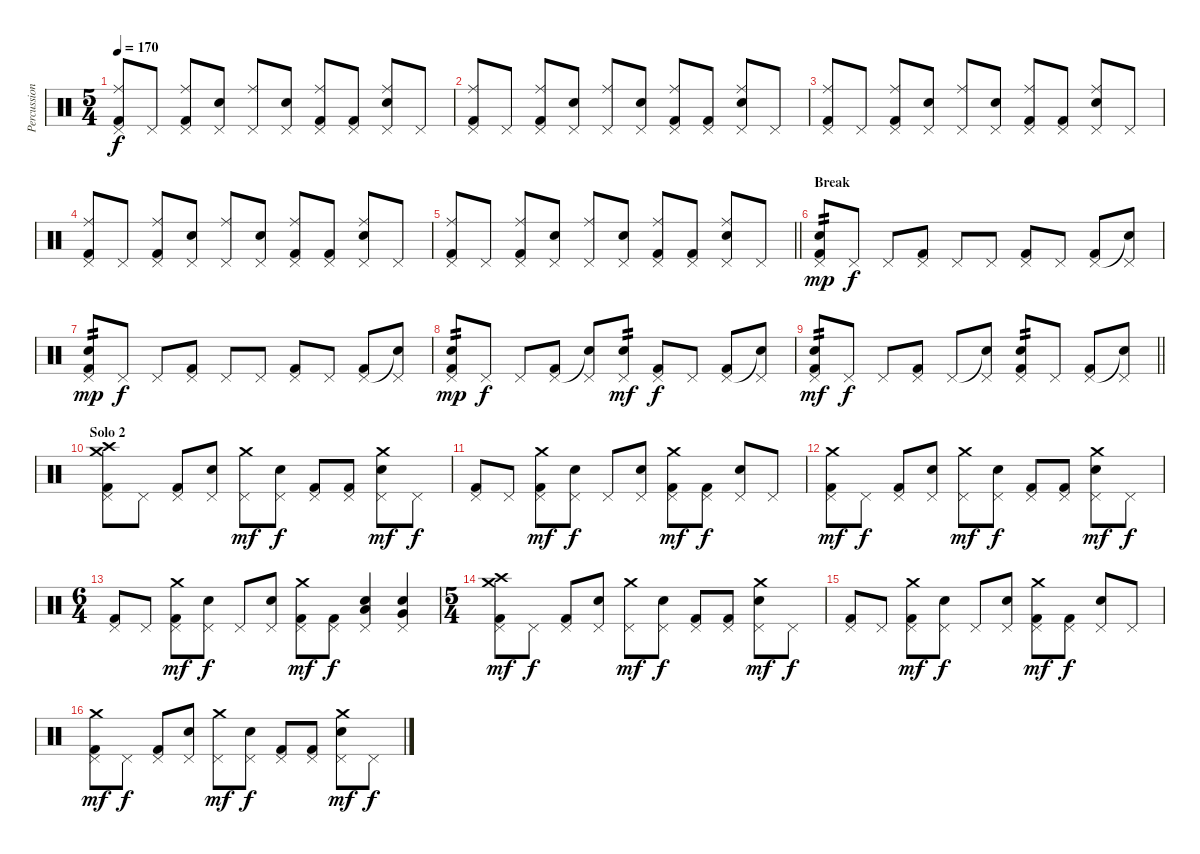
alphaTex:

\track ("Percussion" "Percussion") {instrument percussion}
\staff {score}
\articulation defaults
\ts (5 4)
\tempo 170
\clef neutral
\ks c
("Ride (middle)" "Pedal Hi-Hat (hit)" "Kick (hit) 2").8{dy f} "Pedal Hi-Hat (hit)".8 ("Ride (middle)" "Pedal Hi-Hat (hit)" "Kick (hit) 2").8 ("Electric Snare (hit)" "Pedal Hi-Hat (hit)").8 ("Ride (middle)" "Pedal Hi-Hat (hit)").8 ("Electric Snare (hit)" "Pedal Hi-Hat (hit)").8 ("Ride (middle)" "Pedal Hi-Hat (hit)" "Kick (hit) 2").8 ("Pedal Hi-Hat (hit)" "Kick (hit) 2").8 ("Ride (middle)" "Electric Snare (hit)" "Pedal Hi-Hat (hit)").8 "Pedal Hi-Hat (hit)".8 |
("Ride (middle)" "Pedal Hi-Hat (hit)" "Kick (hit) 2").8 "Pedal Hi-Hat (hit)".8 ("Ride (middle)" "Pedal Hi-Hat (hit)" "Kick (hit) 2").8 ("Electric Snare (hit)" "Pedal Hi-Hat (hit)").8 ("Ride (middle)" "Pedal Hi-Hat (hit)").8 ("Electric Snare (hit)" "Pedal Hi-Hat (hit)").8 ("Ride (middle)" "Pedal Hi-Hat (hit)" "Kick (hit) 2").8 ("Pedal Hi-Hat (hit)" "Kick (hit) 2").8 ("Ride (middle)" "Electric Snare (hit)" "Pedal Hi-Hat (hit)").8 "Pedal Hi-Hat (hit)".8 |
("Ride (middle)" "Pedal Hi-Hat (hit)" "Kick (hit) 2").8 "Pedal Hi-Hat (hit)".8 ("Ride (middle)" "Pedal Hi-Hat (hit)" "Kick (hit) 2").8 ("Electric Snare (hit)" "Pedal Hi-Hat (hit)").8 ("Ride (middle)" "Pedal Hi-Hat (hit)").8 ("Electric Snare (hit)" "Pedal Hi-Hat (hit)").8 ("Ride (middle)" "Pedal Hi-Hat (hit)" "Kick (hit) 2").8 ("Pedal Hi-Hat (hit)" "Kick (hit) 2").8 ("Ride (middle)" "Electric Snare (hit)" "Pedal Hi-Hat (hit)").8 "Pedal Hi-Hat (hit)".8 |
("Ride (middle)" "Pedal Hi-Hat (hit)" "Kick (hit) 2").8 "Pedal Hi-Hat (hit)".8 ("Ride (middle)" "Pedal Hi-Hat (hit)" "Kick (hit) 2").8 ("Electric Snare (hit)" "Pedal Hi-Hat (hit)").8 ("Ride (middle)" "Pedal Hi-Hat (hit)").8 ("Electric Snare (hit)" "Pedal Hi-Hat (hit)").8 ("Ride (middle)" "Pedal Hi-Hat (hit)" "Kick (hit) 2").8 ("Pedal Hi-Hat (hit)" "Kick (hit) 2").8 ("Ride (middle)" "Electric Snare (hit)" "Pedal Hi-Hat (hit)").8 "Pedal Hi-Hat (hit)".8 |
\barLineRight lightlight
("Ride (middle)" "Pedal Hi-Hat (hit)" "Kick (hit) 2").8 "Pedal Hi-Hat (hit)".8 ("Ride (middle)" "Pedal Hi-Hat (hit)" "Kick (hit) 2").8 ("Electric Snare (hit)" "Pedal Hi-Hat (hit)").8 ("Ride (middle)" "Pedal Hi-Hat (hit)").8 ("Electric Snare (hit)" "Pedal Hi-Hat (hit)").8 ("Ride (middle)" "Pedal Hi-Hat (hit)" "Kick (hit) 2").8 ("Pedal Hi-Hat (hit)" "Kick (hit) 2").8 ("Ride (middle)" "Electric Snare (hit)" "Pedal Hi-Hat (hit)").8 "Pedal Hi-Hat (hit)".8 |
\section ("" "Break")
("Electric Snare (hit)" "Pedal Hi-Hat (hit)" "Kick (hit) 2").8{tp 2 dy mp} "Pedal Hi-Hat (hit)".8{dy f} "Pedal Hi-Hat (hit)".8 ("Pedal Hi-Hat (hit)" "Kick (hit) 2").8 "Pedal Hi-Hat (hit)".8 "Pedal Hi-Hat (hit)".8 ("Pedal Hi-Hat (hit)" "Kick (hit) 2").8 "Pedal Hi-Hat (hit)".8 ("Pedal Hi-Hat (hit)" "Kick (hit) 2").8 ("Snare (hit)"{t} "Pedal Hi-Hat (hit)").8 |
("Electric Snare (hit)" "Pedal Hi-Hat (hit)" "Kick (hit) 2").8{tp 2 dy mp} "Pedal Hi-Hat (hit)".8{dy f} "Pedal Hi-Hat (hit)".8 ("Pedal Hi-Hat (hit)" "Kick (hit) 2").8 "Pedal Hi-Hat (hit)".8 "Pedal Hi-Hat (hit)".8 ("Pedal Hi-Hat (hit)" "Kick (hit) 2").8 "Pedal Hi-Hat (hit)".8 ("Pedal Hi-Hat (hit)" "Kick (hit) 2").8 ("Snare (hit)"{t} "Pedal Hi-Hat (hit)").8 |
("Electric Snare (hit)" "Pedal Hi-Hat (hit)" "Kick (hit) 2").8{tp 2 dy mp} "Pedal Hi-Hat (hit)".8{dy f} "Pedal Hi-Hat (hit)".8 ("Pedal Hi-Hat (hit)" "Kick (hit) 2").8 ("Snare (hit)"{t} "Pedal Hi-Hat (hit)").8 ("Electric Snare (hit)" "Pedal Hi-Hat (hit)").8{tp 2 dy mf} ("Pedal Hi-Hat (hit)" "Kick (hit) 2").8{dy f} "Pedal Hi-Hat (hit)".8 ("Pedal Hi-Hat (hit)" "Kick (hit) 2").8 ("Snare (hit)"{t} "Pedal Hi-Hat (hit)").8 |
\barLineRight lightlight
("Electric Snare (hit)" "Pedal Hi-Hat (hit)" "Kick (hit) 2").8{tp 2 dy mf} "Pedal Hi-Hat (hit)".8{dy f} "Pedal Hi-Hat (hit)".8 ("Pedal Hi-Hat (hit)" "Kick (hit) 2").8 "Pedal Hi-Hat (hit)".8 ("Snare (hit)"{t} "Pedal Hi-Hat (hit)").8 ("Electric Snare (hit)" "Pedal Hi-Hat (hit)" "Kick (hit) 2").8{tp 2} "Pedal Hi-Hat (hit)".8 ("Pedal Hi-Hat (hit)" "Kick (hit) 2").8 ("Snare (hit)"{t} "Pedal Hi-Hat (hit)").8 |
\section ("" "Solo 2")
("Crash medium (hit)" "Crash high (hit)" "Pedal Hi-Hat (hit)" "Kick (hit) 2").8 "Pedal Hi-Hat (hit)".8 ("Pedal Hi-Hat (hit)" "Kick (hit) 2").8 ("Pedal Hi-Hat (hit)" "Electric Snare (hit)").8 ("Crash medium (hit)" "Pedal Hi-Hat (hit)").8{dy mf} ("Pedal Hi-Hat (hit)" "Electric Snare (hit)").8{dy f} ("Pedal Hi-Hat (hit)" "Kick (hit) 2").8 ("Pedal Hi-Hat (hit)" "Kick (hit) 2").8 ("Crash medium (hit)" "Pedal Hi-Hat (hit)" "Electric Snare (hit)").8{dy mf} "Pedal Hi-Hat (hit)".8{dy f} |
("Pedal Hi-Hat (hit)" "Kick (hit) 2").8 "Pedal Hi-Hat (hit)".8 ("Crash medium (hit)" "Pedal Hi-Hat (hit)" "Kick (hit) 2").8{dy mf} ("Pedal Hi-Hat (hit)" "Electric Snare (hit)").8{dy f} "Pedal Hi-Hat (hit)".8 ("Pedal Hi-Hat (hit)" "Electric Snare (hit)").8 ("Crash medium (hit)" "Pedal Hi-Hat (hit)" "Kick (hit) 2").8{dy mf} ("Pedal Hi-Hat (hit)" "Kick (hit) 2").8{dy f} ("Pedal Hi-Hat (hit)" "Electric Snare (hit)").8 "Pedal Hi-Hat (hit)".8 |
("Crash medium (hit)" "Pedal Hi-Hat (hit)" "Kick (hit) 2").8{dy mf} "Pedal Hi-Hat (hit)".8{dy f} ("Pedal Hi-Hat (hit)" "Kick (hit) 2").8 ("Pedal Hi-Hat (hit)" "Electric Snare (hit)").8 ("Crash medium (hit)" "Pedal Hi-Hat (hit)").8{dy mf} ("Pedal Hi-Hat (hit)" "Electric Snare (hit)").8{dy f} ("Pedal Hi-Hat (hit)" "Kick (hit) 2").8 ("Pedal Hi-Hat (hit)" "Kick (hit) 2").8 ("Crash medium (hit)" "Pedal Hi-Hat (hit)" "Electric Snare (hit)").8{dy mf} "Pedal Hi-Hat (hit)".8{dy f} |
\ts (6 4)
("Pedal Hi-Hat (hit)" "Kick (hit) 2").8 "Pedal Hi-Hat (hit)".8 ("Crash medium (hit)" "Pedal Hi-Hat (hit)" "Kick (hit) 2").8{dy mf} ("Electric Snare (hit)" "Pedal Hi-Hat (hit)").8{dy f} "Pedal Hi-Hat (hit)".8 ("Electric Snare (hit)" "Pedal Hi-Hat (hit)").8 ("Crash medium (hit)" "Pedal Hi-Hat (hit)" "Kick (hit) 2").8{dy mf} ("Pedal Hi-Hat (hit)" "Kick (hit) 2").8{dy f} ("Electric Snare (hit)" "Low Tom (hit)" "Pedal Hi-Hat (hit)").4 ("Electric Snare (hit)" "Very Low Tom (hit)" "Pedal Hi-Hat (hit)").4 |
\ts (5 4)
("Crash medium (hit)" "Crash high (hit)" "Pedal Hi-Hat (hit)" "Kick (hit) 2").8{dy mf} "Pedal Hi-Hat (hit)".8{dy f} ("Pedal Hi-Hat (hit)" "Kick (hit) 2").8 ("Pedal Hi-Hat (hit)" "Electric Snare (hit)").8 ("Crash medium (hit)" "Pedal Hi-Hat (hit)").8{dy mf} ("Pedal Hi-Hat (hit)" "Electric Snare (hit)").8{dy f} ("Pedal Hi-Hat (hit)" "Kick (hit) 2").8 ("Pedal Hi-Hat (hit)" "Kick (hit) 2").8 ("Crash medium (hit)" "Pedal Hi-Hat (hit)" "Electric Snare (hit)").8{dy mf} "Pedal Hi-Hat (hit)".8{dy f} |
("Pedal Hi-Hat (hit)" "Kick (hit) 2").8 "Pedal Hi-Hat (hit)".8 ("Crash medium (hit)" "Pedal Hi-Hat (hit)" "Kick (hit) 2").8{dy mf} ("Pedal Hi-Hat (hit)" "Electric Snare (hit)").8{dy f} "Pedal Hi-Hat (hit)".8 ("Pedal Hi-Hat (hit)" "Electric Snare (hit)").8 ("Crash medium (hit)" "Pedal Hi-Hat (hit)" "Kick (hit) 2").8{dy mf} ("Pedal Hi-Hat (hit)" "Kick (hit) 2").8{dy f} ("Pedal Hi-Hat (hit)" "Electric Snare (hit)").8 "Pedal Hi-Hat (hit)".8 |
("Crash medium (hit)" "Pedal Hi-Hat (hit)" "Kick (hit) 2").8{dy mf} "Pedal Hi-Hat (hit)".8{dy f} ("Pedal Hi-Hat (hit)" "Kick (hit) 2").8 ("Pedal Hi-Hat (hit)" "Electric Snare (hit)").8 ("Crash medium (hit)" "Pedal Hi-Hat (hit)").8{dy mf} ("Pedal Hi-Hat (hit)" "Electric Snare (hit)").8{dy f} ("Pedal Hi-Hat (hit)" "Kick (hit) 2").8 ("Pedal Hi-Hat (hit)" "Kick (hit) 2").8 ("Crash medium (hit)" "Pedal Hi-Hat (hit)" "Electric Snare (hit)").8{dy mf} "Pedal Hi-Hat (hit)".8{dy f}
